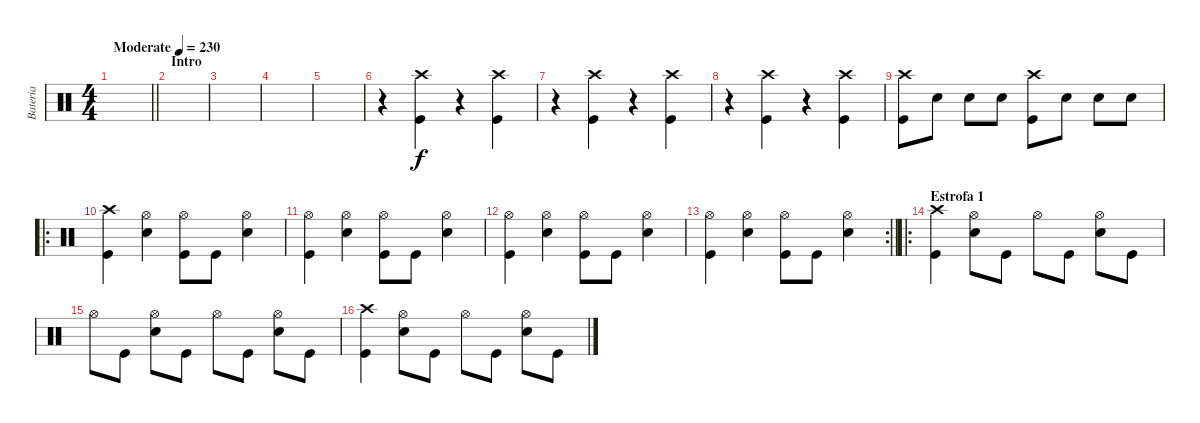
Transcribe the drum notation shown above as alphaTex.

\track ("Bateria" "Bateria") {instrument percussion}
\staff {score}
\articulation defaults
\ts (4 4)
\tempo (230 "Moderate")
\clef neutral
\barLineRight lightlight
\ks c
|
\section ("" "Intro")
|
|
|
|
r.4 ("Crash high (hit)" "Kick (hit)").4 r.4 ("Crash high (hit)" "Kick (hit)").4 |
r.4 ("Crash high (hit)" "Kick (hit)").4 r.4 ("Crash high (hit)" "Kick (hit)").4 |
r.4 ("Crash high (hit)" "Kick (hit)").4 r.4 ("Crash high (hit)" "Kick (hit)").4 |
("Crash high (hit)" "Kick (hit)").8 "Snare (hit) 2".8 "Snare (hit) 2".8 "Snare (hit) 2".8 ("Crash high (hit)" "Kick (hit)").8 "Snare (hit) 2".8 "Snare (hit) 2".8 "Snare (hit) 2".8 |
\ro
("Crash high (hit)" "Kick (hit)").4 ("Hi-Hat (open)" "Snare (hit) 2").4 ("Hi-Hat (open)" "Kick (hit)").8 "Kick (hit)".8 ("Hi-Hat (open)" "Snare (hit) 2").4 |
("Hi-Hat (open)" "Kick (hit)").4 ("Hi-Hat (open)" "Snare (hit) 2").4 ("Hi-Hat (open)" "Kick (hit)").8 "Kick (hit)".8 ("Hi-Hat (open)" "Snare (hit) 2").4 |
("Hi-Hat (open)" "Kick (hit)").4 ("Hi-Hat (open)" "Snare (hit) 2").4 ("Hi-Hat (open)" "Kick (hit)").8 "Kick (hit)".8 ("Hi-Hat (open)" "Snare (hit) 2").4 |
\rc 2
\barLineRight lightlight
("Hi-Hat (open)" "Kick (hit)").4 ("Hi-Hat (open)" "Snare (hit) 2").4 ("Hi-Hat (open)" "Kick (hit)").8 "Kick (hit)".8 ("Hi-Hat (open)" "Snare (hit) 2").4 |
\ro
\section ("" "Estrofa 1")
("Crash high (hit)" "Kick (hit)").4 ("Hi-Hat (open)" "Snare (hit) 2").8 "Kick (hit)".8 "Hi-Hat (open)".8 "Kick (hit)".8 ("Hi-Hat (open)" "Snare (hit) 2").8 "Kick (hit)".8 |
"Hi-Hat (open)".8 "Kick (hit)".8 ("Hi-Hat (open)" "Snare (hit) 2").8 "Kick (hit)".8 "Hi-Hat (open)".8 "Kick (hit)".8 ("Hi-Hat (open)" "Snare (hit) 2").8 "Kick (hit)".8 |
("Crash high (hit)" "Kick (hit)").4 ("Hi-Hat (open)" "Snare (hit) 2").8 "Kick (hit)".8 "Hi-Hat (open)".8 "Kick (hit)".8 ("Hi-Hat (open)" "Snare (hit) 2").8 "Kick (hit)".8
